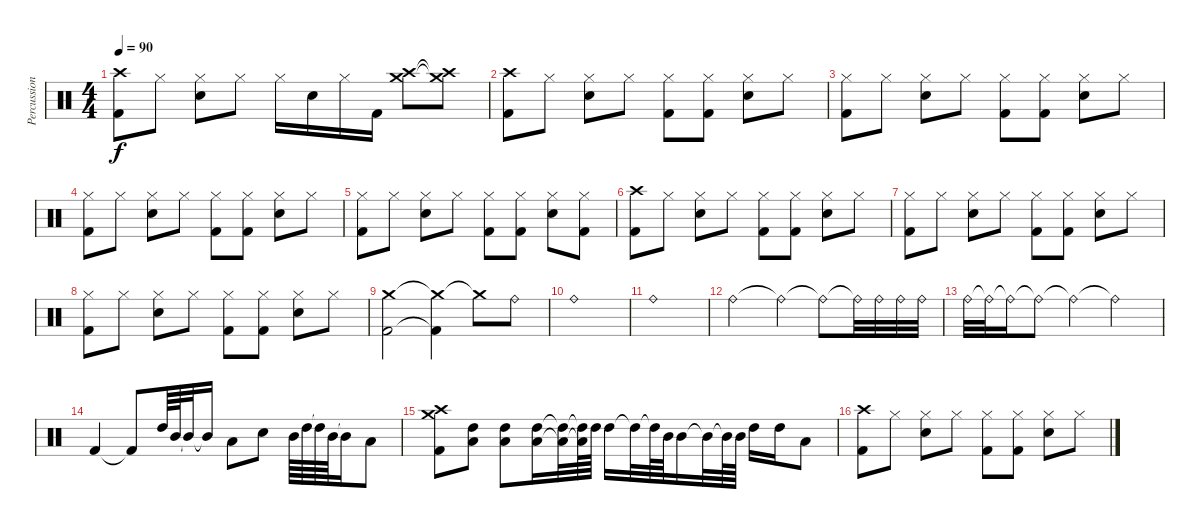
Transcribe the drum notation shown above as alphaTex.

\track ("Percussion" "Percussion") {instrument percussion}
\staff {score}
\articulation defaults
\ts (4 4)
\tempo 90
\clef neutral
\ks c
("Crash high (hit)" "Kick (hit) 2").8{dy f} "Hi-Hat (closed)".8 ("Hi-Hat (closed)" "Snare (hit) 2").8 "Hi-Hat (closed)".8 "Hi-Hat (closed)".16 "Snare (hit) 2".16 "Hi-Hat (closed)".16 "Kick (hit) 2".16 ("Crash high (hit)" "Crash medium (hit)").8 ("Crash high (hit)"{t} "Crash medium (hit)"{t}).8 |
("Crash high (hit)" "Kick (hit) 2").8 "Hi-Hat (closed)".8 ("Hi-Hat (closed)" "Snare (hit) 2").8 "Hi-Hat (closed)".8 ("Hi-Hat (closed)" "Kick (hit) 2").8 ("Hi-Hat (closed)" "Kick (hit) 2").8 ("Hi-Hat (closed)" "Snare (hit) 2").8 "Hi-Hat (closed)".8 |
("Hi-Hat (closed)" "Kick (hit) 2").8 "Hi-Hat (closed)".8 ("Hi-Hat (closed)" "Snare (hit) 2").8 "Hi-Hat (closed)".8 ("Hi-Hat (closed)" "Kick (hit) 2").8 ("Hi-Hat (closed)" "Kick (hit) 2").8 ("Hi-Hat (closed)" "Snare (hit) 2").8 "Hi-Hat (closed)".8 |
("Hi-Hat (closed)" "Kick (hit) 2").8 "Hi-Hat (closed)".8 ("Hi-Hat (closed)" "Snare (hit) 2").8 "Hi-Hat (closed)".8 ("Hi-Hat (closed)" "Kick (hit) 2").8 ("Hi-Hat (closed)" "Kick (hit) 2").8 ("Hi-Hat (closed)" "Snare (hit) 2").8 "Hi-Hat (closed)".8 |
("Hi-Hat (closed)" "Kick (hit) 2").8 "Hi-Hat (closed)".8 ("Hi-Hat (closed)" "Snare (hit) 2").8 "Hi-Hat (closed)".8 ("Hi-Hat (closed)" "Kick (hit) 2").8 ("Hi-Hat (closed)" "Kick (hit) 2").8 ("Hi-Hat (closed)" "Snare (hit) 2").8 ("Hi-Hat (closed)" "Kick (hit) 2").8 |
("Crash high (hit)" "Kick (hit) 2").8 "Hi-Hat (closed)".8 ("Hi-Hat (closed)" "Snare (hit) 2").8 "Hi-Hat (closed)".8 ("Hi-Hat (closed)" "Kick (hit) 2").8 ("Hi-Hat (closed)" "Kick (hit) 2").8 ("Hi-Hat (closed)" "Snare (hit) 2").8 "Hi-Hat (closed)".8 |
("Hi-Hat (closed)" "Kick (hit) 2").8 "Hi-Hat (closed)".8 ("Hi-Hat (closed)" "Snare (hit) 2").8 "Hi-Hat (closed)".8 ("Hi-Hat (closed)" "Kick (hit) 2").8 ("Hi-Hat (closed)" "Kick (hit) 2").8 ("Hi-Hat (closed)" "Snare (hit) 2").8 "Hi-Hat (closed)".8 |
("Hi-Hat (closed)" "Kick (hit) 2").8 "Hi-Hat (closed)".8 ("Hi-Hat (closed)" "Snare (hit) 2").8 "Hi-Hat (closed)".8 ("Hi-Hat (closed)" "Kick (hit) 2").8 ("Hi-Hat (closed)" "Kick (hit) 2").8 ("Hi-Hat (closed)" "Snare (hit) 2").8 "Hi-Hat (closed)".8 |
("Crash medium (hit)" "Kick (hit) 2").2 ("Crash medium (hit)"{t} "Kick (hit) 2"{t}).4 "Crash medium (hit)"{t}.8 "Ride (bell)".8 |
"Ride (bell)".1 |
"Ride (bell)".1 |
"Ride (bell)".2 "Ride (bell)"{t}.4 "Ride (bell)"{t}.8 "Ride (bell)"{t}.32 "Ride (bell)".32 "Ride (bell)".32 "Ride (bell)".32 |
"Ride (bell)".32 "Ride (bell)"{t}.32 "Ride (bell)"{t}.16 "Ride (bell)"{t}.8 "Ride (bell)"{t}.4 "Ride (bell)"{t}.2 |
"Kick (hit) 2".4 "Kick (hit) 2"{t}.8 "High Tom (hit)".64 "Mid Tom (hit)".64 "Mid Tom (hit)"{t}.32 "Mid Tom (hit)"{t}.16 "Low Floor Tom (hit)".8 "Snare (hit) 2".8 "Mid Tom (hit)".64 "High Tom (hit)".64 "High Tom (hit)"{t}.64 "Mid Tom (hit)".64 "Mid Tom (hit)"{t}.16 "Low Tom (hit)".8 |
("Crash high (hit)" "Crash medium (hit)" "Kick (hit) 2").8 ("High Tom (hit)" "Low Floor Tom (hit)").8 ("High Tom (hit)" "Low Floor Tom (hit)").8 ("High Tom (hit)" "Low Floor Tom (hit)").16 ("High Tom (hit)"{t} "Low Floor Tom (hit)"{t}).32 ("High Tom (hit)"{t} "Low Floor Tom (hit)"{t}).64 "High Tom (hit)".64 "High Tom (hit)".16 "High Tom (hit)"{t}.32 "High Tom (hit)"{t}.64 "Mid Tom (hit)".64 "Mid Tom (hit)".16 "Mid Tom (hit)"{t}.32 "Mid Tom (hit)"{t}.64 "Mid Tom (hit)".64 "High Tom (hit)".16 "High Tom (hit)".16 "Low Floor Tom (hit)".8 |
("Crash high (hit)" "Kick (hit) 2").8 "Hi-Hat (closed)".8 ("Hi-Hat (closed)" "Snare (hit) 2").8 "Hi-Hat (closed)".8 ("Hi-Hat (closed)" "Kick (hit) 2").8 ("Hi-Hat (closed)" "Kick (hit) 2").8 ("Hi-Hat (closed)" "Snare (hit) 2").8 "Hi-Hat (closed)".8
